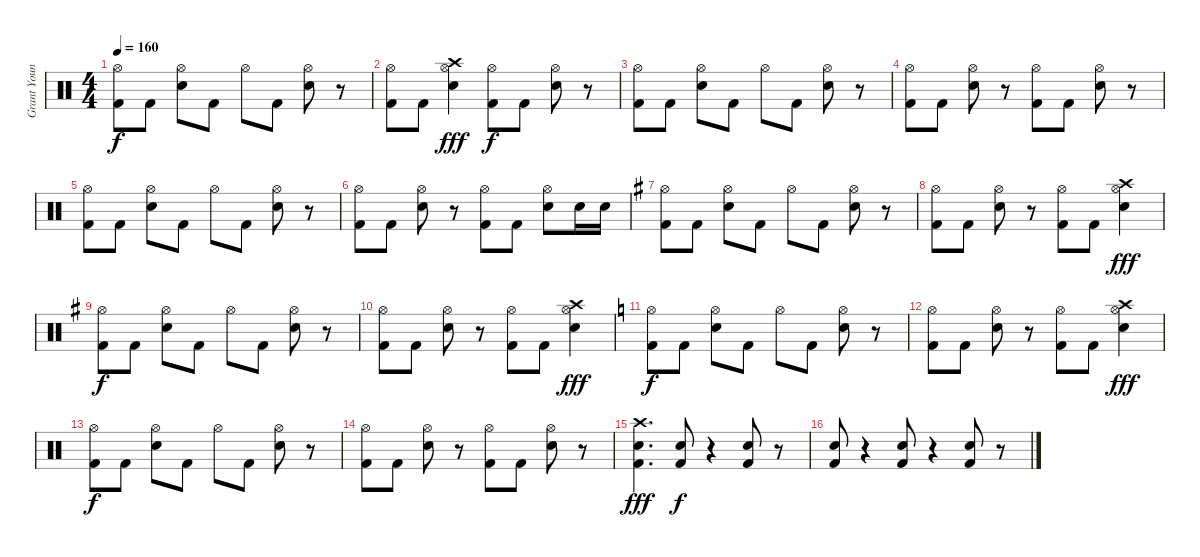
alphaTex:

\track ("Grant Young" "Grant Youn") {instrument percussion}
\staff {score}
\articulation defaults
\ts (4 4)
\tempo 160
\clef neutral
\ks c
("Hi-Hat (open)" "Kick (hit) 2").8{dy f} "Kick (hit) 2".8 ("Hi-Hat (open)" "Snare (hit) 2").8 "Kick (hit) 2".8 "Hi-Hat (open)".8 "Kick (hit) 2".8 ("Hi-Hat (open)" "Snare (hit) 2").8 r.8 |
("Hi-Hat (open)" "Kick (hit) 2").8 "Kick (hit) 2".8 ("Crash high (hit)" "Hi-Hat (open)" "Snare (hit) 2").4{dy fff} ("Kick (hit) 2" "Hi-Hat (open)").8{dy f} "Kick (hit) 2".8 ("Hi-Hat (open)" "Snare (hit) 2").8 r.8 |
("Hi-Hat (open)" "Kick (hit) 2").8 "Kick (hit) 2".8 ("Hi-Hat (open)" "Snare (hit) 2").8 "Kick (hit) 2".8 "Hi-Hat (open)".8 "Kick (hit) 2".8 ("Hi-Hat (open)" "Snare (hit) 2").8 r.8 |
("Hi-Hat (open)" "Kick (hit) 2").8 "Kick (hit) 2".8 ("Hi-Hat (open)" "Snare (hit) 2").8 r.8 ("Kick (hit) 2" "Hi-Hat (open)").8 "Kick (hit) 2".8 ("Hi-Hat (open)" "Snare (hit) 2").8 r.8 |
("Hi-Hat (open)" "Kick (hit) 2").8 "Kick (hit) 2".8 ("Hi-Hat (open)" "Snare (hit) 2").8 "Kick (hit) 2".8 "Hi-Hat (open)".8 "Kick (hit) 2".8 ("Hi-Hat (open)" "Snare (hit) 2").8 r.8 |
("Hi-Hat (open)" "Kick (hit) 2").8 "Kick (hit) 2".8 ("Hi-Hat (open)" "Snare (hit) 2").8 r.8 ("Kick (hit) 2" "Hi-Hat (open)").8 "Kick (hit) 2".8 ("Hi-Hat (open)" "Snare (hit) 2").8 "Snare (hit) 2".16 "Snare (hit) 2".16 |
\ks g
("Hi-Hat (open)" "Kick (hit) 2").8 "Kick (hit) 2".8 ("Hi-Hat (open)" "Snare (hit) 2").8 "Kick (hit) 2".8 "Hi-Hat (open)".8 "Kick (hit) 2".8 ("Hi-Hat (open)" "Snare (hit) 2").8 r.8 |
("Hi-Hat (open)" "Kick (hit) 2").8 "Kick (hit) 2".8 ("Hi-Hat (open)" "Snare (hit) 2").8 r.8 ("Kick (hit) 2" "Hi-Hat (open)").8 "Kick (hit) 2".8 ("Crash high (hit)" "Hi-Hat (open)" "Snare (hit) 2").4{dy fff} |
("Hi-Hat (open)" "Kick (hit) 2").8{dy f} "Kick (hit) 2".8 ("Hi-Hat (open)" "Snare (hit) 2").8 "Kick (hit) 2".8 "Hi-Hat (open)".8 "Kick (hit) 2".8 ("Hi-Hat (open)" "Snare (hit) 2").8 r.8 |
("Hi-Hat (open)" "Kick (hit) 2").8 "Kick (hit) 2".8 ("Hi-Hat (open)" "Snare (hit) 2").8 r.8 ("Kick (hit) 2" "Hi-Hat (open)").8 "Kick (hit) 2".8 ("Crash high (hit)" "Hi-Hat (open)" "Snare (hit) 2").4{dy fff} |
\ks c
("Hi-Hat (open)" "Kick (hit) 2").8{dy f} "Kick (hit) 2".8 ("Hi-Hat (open)" "Snare (hit) 2").8 "Kick (hit) 2".8 "Hi-Hat (open)".8 "Kick (hit) 2".8 ("Hi-Hat (open)" "Snare (hit) 2").8 r.8 |
("Hi-Hat (open)" "Kick (hit) 2").8 "Kick (hit) 2".8 ("Hi-Hat (open)" "Snare (hit) 2").8 r.8 ("Kick (hit) 2" "Hi-Hat (open)").8 "Kick (hit) 2".8 ("Crash high (hit)" "Hi-Hat (open)" "Snare (hit) 2").4{dy fff} |
("Hi-Hat (open)" "Kick (hit) 2").8{dy f} "Kick (hit) 2".8 ("Hi-Hat (open)" "Snare (hit) 2").8 "Kick (hit) 2".8 "Hi-Hat (open)".8 "Kick (hit) 2".8 ("Hi-Hat (open)" "Snare (hit) 2").8 r.8 |
("Hi-Hat (open)" "Kick (hit) 2").8 "Kick (hit) 2".8 ("Hi-Hat (open)" "Snare (hit) 2").8 r.8 ("Kick (hit) 2" "Hi-Hat (open)").8 "Kick (hit) 2".8 ("Hi-Hat (open)" "Snare (hit) 2").8 r.8 |
("Crash high (hit)" "Kick (hit) 2" "Snare (hit) 2").4{d dy fff} ("Kick (hit) 2" "Snare (hit) 2").8{dy f} r.4 ("Kick (hit) 2" "Snare (hit) 2").8 r.8 |
("Kick (hit) 2" "Snare (hit) 2").8 r.4 ("Kick (hit) 2" "Snare (hit) 2").8 r.4 ("Kick (hit) 2" "Snare (hit) 2").8 r.8
